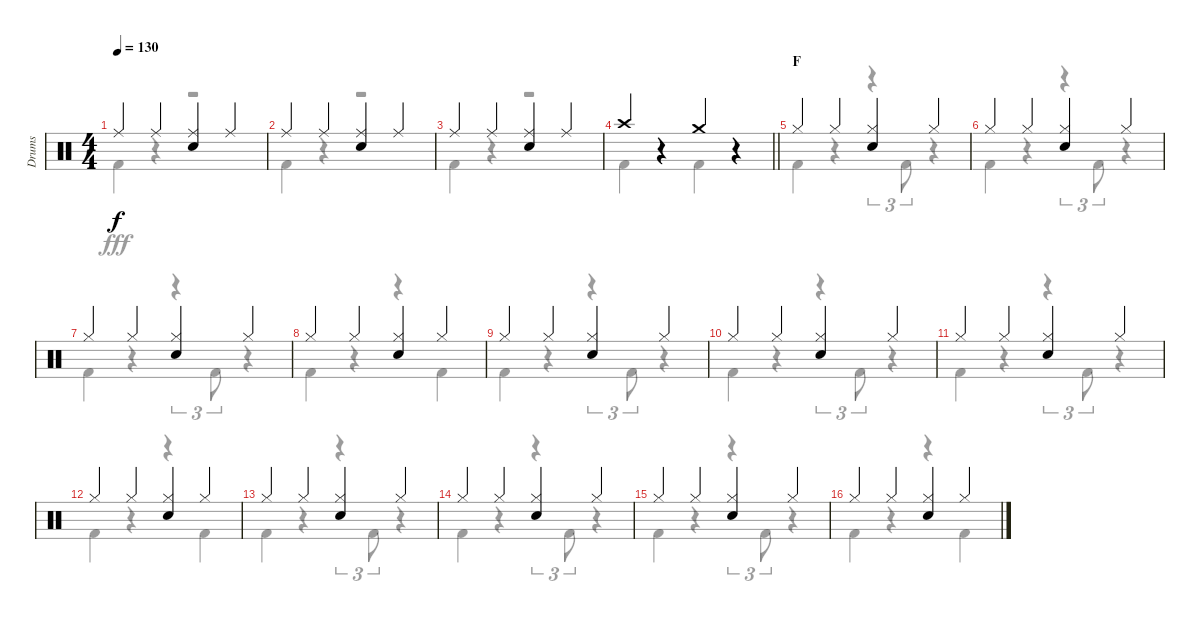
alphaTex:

\track ("Drums" "Drums") {instrument percussion}
\staff {score}
\articulation defaults
\voice
\ts (4 4)
\tempo 130
\clef neutral
\ks c "Ride (middle)".4{dy f} "Ride (middle)".4
("Ride (middle)" "Snare (hit) 2").4 "Ride (middle)".4 |
"Ride (middle)".4 "Ride (middle)".4 ("Ride (middle)" "Snare (hit) 2").4 "Ride (middle)".4 |
"Ride (middle)".4 "Ride (middle)".4 ("Ride (middle)" "Snare (hit) 2").4 "Ride (middle)".4 |
\barLineRight lightlight "Crash high (hit)".4
r.4 "Crash medium (hit)".4 r.4 |
\section ("" "F")
"Hi-Hat (closed)".4 "Hi-Hat (closed)".4 ("Hi-Hat (closed)" "Snare (hit) 2").4 "Hi-Hat (closed)".4 |
"Hi-Hat (closed)".4 "Hi-Hat (closed)".4 ("Hi-Hat (closed)" "Snare (hit) 2").4 "Hi-Hat (closed)".4 |
"Hi-Hat (closed)".4 "Hi-Hat (closed)".4 ("Hi-Hat (closed)" "Snare (hit) 2").4 "Hi-Hat (closed)".4 |
"Hi-Hat (closed)".4 "Hi-Hat (closed)".4 ("Hi-Hat (closed)" "Snare (hit) 2").4 "Hi-Hat (closed)".4 |
"Hi-Hat (closed)".4 "Hi-Hat (closed)".4 ("Hi-Hat (closed)" "Snare (hit) 2").4 "Hi-Hat (closed)".4 |
"Hi-Hat (closed)".4 "Hi-Hat (closed)".4 ("Hi-Hat (closed)" "Snare (hit) 2").4 "Hi-Hat (closed)".4 |
"Hi-Hat (closed)".4 "Hi-Hat (closed)".4 ("Hi-Hat (closed)" "Snare (hit) 2").4 "Hi-Hat (closed)".4 |
"Hi-Hat (closed)".4 "Hi-Hat (closed)".4 ("Hi-Hat (closed)" "Snare (hit) 2").4 "Hi-Hat (closed)".4 |
"Hi-Hat (closed)".4 "Hi-Hat (closed)".4 ("Hi-Hat (closed)" "Snare (hit) 2").4 "Hi-Hat (closed)".4 |
"Hi-Hat (closed)".4 "Hi-Hat (closed)".4 ("Hi-Hat (closed)" "Snare (hit) 2").4 "Hi-Hat (closed)".4 |
"Hi-Hat (closed)".4 "Hi-Hat (closed)".4 ("Hi-Hat (closed)" "Snare (hit) 2").4 "Hi-Hat (closed)".4 |
"Hi-Hat (closed)".4 "Hi-Hat (closed)".4 ("Hi-Hat (closed)" "Snare (hit) 2").4 "Hi-Hat (closed)".4
\voice
\clef neutral
\ottava regular
\simile none
\ks c "Kick (hit) 2".4{dy fff}
r.4 r.2 |
"Kick (hit) 2".4 r.4 r.2 |
"Kick (hit) 2".4 r.4 r.2 |
\barLineRight lightlight "Kick (hit) 2".4
r.4 "Kick (hit) 2".4 r.4 |
"Kick (hit) 2".4 r.4 r.4{tu (3 2)} "Kick (hit) 2".8{tu (3 2)} r.4 |
"Kick (hit) 2".4 r.4 r.4{tu (3 2)} "Kick (hit) 2".8{tu (3 2)} r.4 |
"Kick (hit) 2".4 r.4 r.4{tu (3 2)} "Kick (hit) 2".8{tu (3 2)} r.4 |
"Kick (hit) 2".4 r.4 r.4 "Kick (hit) 2".4 |
"Kick (hit) 2".4 r.4 r.4{tu (3 2)} "Kick (hit) 2".8{tu (3 2)} r.4 |
"Kick (hit) 2".4 r.4 r.4{tu (3 2)} "Kick (hit) 2".8{tu (3 2)} r.4 |
"Kick (hit) 2".4 r.4 r.4{tu (3 2)} "Kick (hit) 2".8{tu (3 2)} r.4 |
"Kick (hit) 2".4 r.4 r.4 "Kick (hit) 2".4 |
"Kick (hit) 2".4 r.4 r.4{tu (3 2)} "Kick (hit) 2".8{tu (3 2)} r.4 |
"Kick (hit) 2".4 r.4 r.4{tu (3 2)} "Kick (hit) 2".8{tu (3 2)} r.4 |
"Kick (hit) 2".4 r.4 r.4{tu (3 2)} "Kick (hit) 2".8{tu (3 2)} r.4 |
"Kick (hit) 2".4 r.4 r.4 "Kick (hit) 2".4
